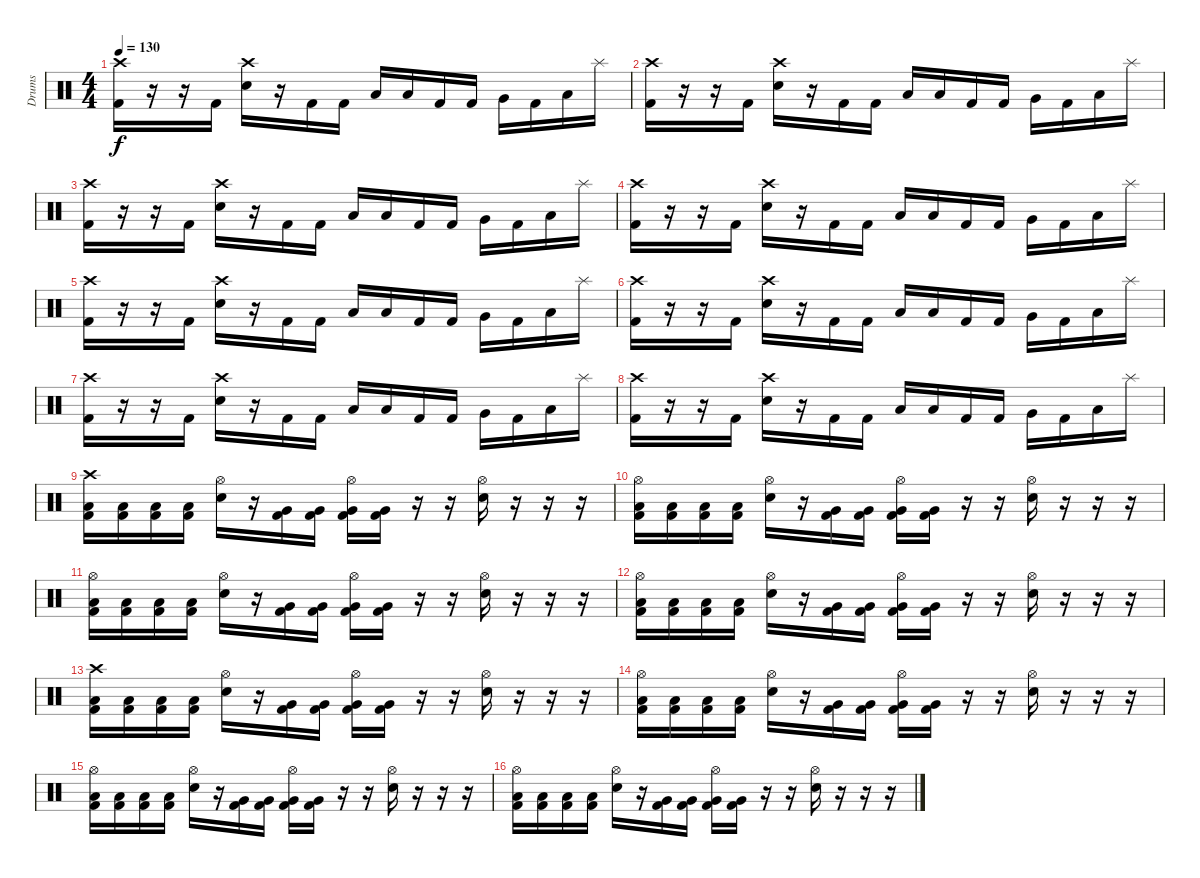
\track ("Drums" "Drums") {instrument percussion}
\staff {score}
\articulation defaults
\ts (4 4)
\tempo 130
\clef neutral
\ks c
("Crash high (hit)" "Kick (hit) 2").16{dy f} r.16 r.16 "Kick (hit) 2".16 ("Crash high (hit)" "Electric Snare (hit)").16 r.16 "Kick (hit) 2".16 "Kick (hit) 2".16 "Low Tom (hit)".16 "Low Tom (hit)".16 "Kick (hit) 2".16 "Kick (hit) 2".16 "Very Low Tom (hit)".16 "Kick (hit) 2".16 "Low Tom (hit)".16 "Splash (hit)".16 |
("Crash high (hit)" "Kick (hit) 2").16 r.16 r.16 "Kick (hit) 2".16 ("Crash high (hit)" "Electric Snare (hit)").16 r.16 "Kick (hit) 2".16 "Kick (hit) 2".16 "Low Tom (hit)".16 "Low Tom (hit)".16 "Kick (hit) 2".16 "Kick (hit) 2".16 "Very Low Tom (hit)".16 "Kick (hit) 2".16 "Low Tom (hit)".16 "Splash (hit)".16 |
("Crash high (hit)" "Kick (hit) 2").16 r.16 r.16 "Kick (hit) 2".16 ("Crash high (hit)" "Electric Snare (hit)").16 r.16 "Kick (hit) 2".16 "Kick (hit) 2".16 "Low Tom (hit)".16 "Low Tom (hit)".16 "Kick (hit) 2".16 "Kick (hit) 2".16 "Very Low Tom (hit)".16 "Kick (hit) 2".16 "Low Tom (hit)".16 "Splash (hit)".16 |
("Crash high (hit)" "Kick (hit) 2").16 r.16 r.16 "Kick (hit) 2".16 ("Crash high (hit)" "Electric Snare (hit)").16 r.16 "Kick (hit) 2".16 "Kick (hit) 2".16 "Low Tom (hit)".16 "Low Tom (hit)".16 "Kick (hit) 2".16 "Kick (hit) 2".16 "Very Low Tom (hit)".16 "Kick (hit) 2".16 "Low Tom (hit)".16 "Splash (hit)".16 |
("Crash high (hit)" "Kick (hit) 2").16 r.16 r.16 "Kick (hit) 2".16 ("Crash high (hit)" "Electric Snare (hit)").16 r.16 "Kick (hit) 2".16 "Kick (hit) 2".16 "Low Tom (hit)".16 "Low Tom (hit)".16 "Kick (hit) 2".16 "Kick (hit) 2".16 "Very Low Tom (hit)".16 "Kick (hit) 2".16 "Low Tom (hit)".16 "Splash (hit)".16 |
("Crash high (hit)" "Kick (hit) 2").16 r.16 r.16 "Kick (hit) 2".16 ("Crash high (hit)" "Electric Snare (hit)").16 r.16 "Kick (hit) 2".16 "Kick (hit) 2".16 "Low Tom (hit)".16 "Low Tom (hit)".16 "Kick (hit) 2".16 "Kick (hit) 2".16 "Very Low Tom (hit)".16 "Kick (hit) 2".16 "Low Tom (hit)".16 "Splash (hit)".16 |
("Crash high (hit)" "Kick (hit) 2").16 r.16 r.16 "Kick (hit) 2".16 ("Crash high (hit)" "Electric Snare (hit)").16 r.16 "Kick (hit) 2".16 "Kick (hit) 2".16 "Low Tom (hit)".16 "Low Tom (hit)".16 "Kick (hit) 2".16 "Kick (hit) 2".16 "Very Low Tom (hit)".16 "Kick (hit) 2".16 "Low Tom (hit)".16 "Splash (hit)".16 |
("Crash high (hit)" "Kick (hit) 2").16 r.16 r.16 "Kick (hit) 2".16 ("Crash high (hit)" "Electric Snare (hit)").16 r.16 "Kick (hit) 2".16 "Kick (hit) 2".16 "Low Tom (hit)".16 "Low Tom (hit)".16 "Kick (hit) 2".16 "Kick (hit) 2".16 "Very Low Tom (hit)".16 "Kick (hit) 2".16 "Low Tom (hit)".16 "Splash (hit)".16 |
("Crash high (hit)" "Low Tom (hit)" "Kick (hit) 2").16 ("Low Tom (hit)" "Kick (hit) 2").16 ("Low Tom (hit)" "Kick (hit) 2").16 ("Low Tom (hit)" "Kick (hit) 2").16 ("Hi-Hat (open)" "Electric Snare (hit)").16 r.16 ("Very Low Tom (hit)" "Kick (hit) 2").16 ("Very Low Tom (hit)" "Kick (hit) 2").16 ("Hi-Hat (open)" "Very Low Tom (hit)" "Kick (hit) 2").16 ("Very Low Tom (hit)" "Kick (hit) 2").16 r.16 r.16 ("Hi-Hat (open)" "Electric Snare (hit)").16 r.16 r.16 r.16 |
("Hi-Hat (open)" "Low Tom (hit)" "Kick (hit) 2").16 ("Low Tom (hit)" "Kick (hit) 2").16 ("Low Tom (hit)" "Kick (hit) 2").16 ("Low Tom (hit)" "Kick (hit) 2").16 ("Hi-Hat (open)" "Electric Snare (hit)").16 r.16 ("Very Low Tom (hit)" "Kick (hit) 2").16 ("Very Low Tom (hit)" "Kick (hit) 2").16 ("Hi-Hat (open)" "Very Low Tom (hit)" "Kick (hit) 2").16 ("Very Low Tom (hit)" "Kick (hit) 2").16 r.16 r.16 ("Hi-Hat (open)" "Electric Snare (hit)").16 r.16 r.16 r.16 |
("Hi-Hat (open)" "Low Tom (hit)" "Kick (hit) 2").16 ("Low Tom (hit)" "Kick (hit) 2").16 ("Low Tom (hit)" "Kick (hit) 2").16 ("Low Tom (hit)" "Kick (hit) 2").16 ("Hi-Hat (open)" "Electric Snare (hit)").16 r.16 ("Very Low Tom (hit)" "Kick (hit) 2").16 ("Very Low Tom (hit)" "Kick (hit) 2").16 ("Hi-Hat (open)" "Very Low Tom (hit)" "Kick (hit) 2").16 ("Very Low Tom (hit)" "Kick (hit) 2").16 r.16 r.16 ("Hi-Hat (open)" "Electric Snare (hit)").16 r.16 r.16 r.16 |
("Hi-Hat (open)" "Low Tom (hit)" "Kick (hit) 2").16 ("Low Tom (hit)" "Kick (hit) 2").16 ("Low Tom (hit)" "Kick (hit) 2").16 ("Low Tom (hit)" "Kick (hit) 2").16 ("Hi-Hat (open)" "Electric Snare (hit)").16 r.16 ("Very Low Tom (hit)" "Kick (hit) 2").16 ("Very Low Tom (hit)" "Kick (hit) 2").16 ("Hi-Hat (open)" "Very Low Tom (hit)" "Kick (hit) 2").16 ("Very Low Tom (hit)" "Kick (hit) 2").16 r.16 r.16 ("Hi-Hat (open)" "Electric Snare (hit)").16 r.16 r.16 r.16 |
("Crash high (hit)" "Low Tom (hit)" "Kick (hit) 2").16 ("Low Tom (hit)" "Kick (hit) 2").16 ("Low Tom (hit)" "Kick (hit) 2").16 ("Low Tom (hit)" "Kick (hit) 2").16 ("Hi-Hat (open)" "Electric Snare (hit)").16 r.16 ("Very Low Tom (hit)" "Kick (hit) 2").16 ("Very Low Tom (hit)" "Kick (hit) 2").16 ("Hi-Hat (open)" "Very Low Tom (hit)" "Kick (hit) 2").16 ("Very Low Tom (hit)" "Kick (hit) 2").16 r.16 r.16 ("Hi-Hat (open)" "Electric Snare (hit)").16 r.16 r.16 r.16 |
("Hi-Hat (open)" "Low Tom (hit)" "Kick (hit) 2").16 ("Low Tom (hit)" "Kick (hit) 2").16 ("Low Tom (hit)" "Kick (hit) 2").16 ("Low Tom (hit)" "Kick (hit) 2").16 ("Hi-Hat (open)" "Electric Snare (hit)").16 r.16 ("Very Low Tom (hit)" "Kick (hit) 2").16 ("Very Low Tom (hit)" "Kick (hit) 2").16 ("Hi-Hat (open)" "Very Low Tom (hit)" "Kick (hit) 2").16 ("Very Low Tom (hit)" "Kick (hit) 2").16 r.16 r.16 ("Hi-Hat (open)" "Electric Snare (hit)").16 r.16 r.16 r.16 |
("Hi-Hat (open)" "Low Tom (hit)" "Kick (hit) 2").16 ("Low Tom (hit)" "Kick (hit) 2").16 ("Low Tom (hit)" "Kick (hit) 2").16 ("Low Tom (hit)" "Kick (hit) 2").16 ("Hi-Hat (open)" "Electric Snare (hit)").16 r.16 ("Very Low Tom (hit)" "Kick (hit) 2").16 ("Very Low Tom (hit)" "Kick (hit) 2").16 ("Hi-Hat (open)" "Very Low Tom (hit)" "Kick (hit) 2").16 ("Very Low Tom (hit)" "Kick (hit) 2").16 r.16 r.16 ("Hi-Hat (open)" "Electric Snare (hit)").16 r.16 r.16 r.16 |
("Hi-Hat (open)" "Low Tom (hit)" "Kick (hit) 2").16 ("Low Tom (hit)" "Kick (hit) 2").16 ("Low Tom (hit)" "Kick (hit) 2").16 ("Low Tom (hit)" "Kick (hit) 2").16 ("Hi-Hat (open)" "Electric Snare (hit)").16 r.16 ("Very Low Tom (hit)" "Kick (hit) 2").16 ("Very Low Tom (hit)" "Kick (hit) 2").16 ("Hi-Hat (open)" "Very Low Tom (hit)" "Kick (hit) 2").16 ("Very Low Tom (hit)" "Kick (hit) 2").16 r.16 r.16 ("Hi-Hat (open)" "Electric Snare (hit)").16 r.16 r.16 r.16
